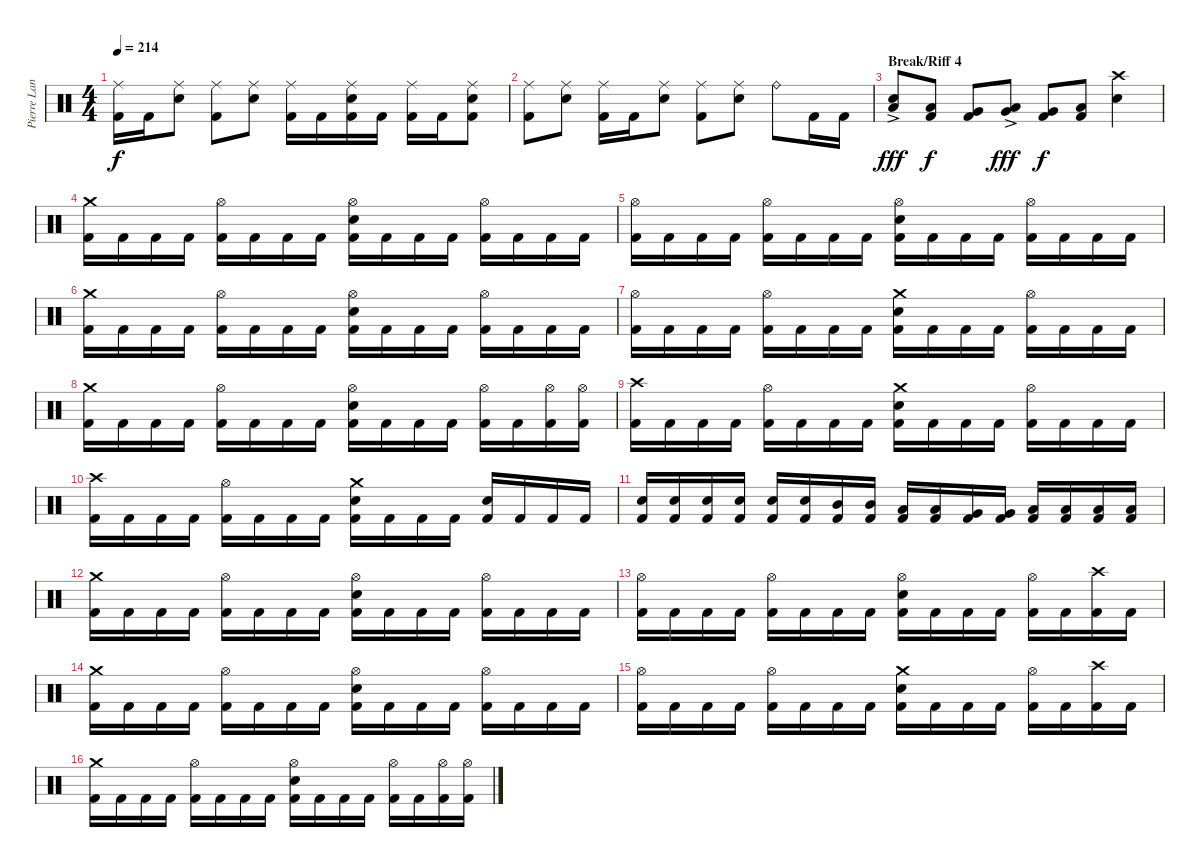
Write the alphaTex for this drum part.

\track ("Pierre Langlois (Drums)" "Pierre Lan") {instrument percussion}
\staff {score}
\articulation defaults
\ts (4 4)
\tempo 214
\clef neutral
\ks c
("Ride (middle)" "Kick (hit) 2").16{dy f} "Kick (hit) 2".16 ("Ride (middle)" "Snare (hit) 2").8 ("Ride (middle)" "Kick (hit) 2").8 ("Ride (middle)" "Snare (hit) 2").8 ("Ride (middle)" "Kick (hit) 2").16 "Kick (hit) 2".16 ("Ride (middle)" "Snare (hit) 2" "Kick (hit) 2").16 "Kick (hit) 2".16 ("Ride (middle)" "Kick (hit) 2").16 "Kick (hit) 2".16 ("Ride (middle)" "Snare (hit) 2" "Kick (hit) 2").8 |
("Ride (middle)" "Kick (hit) 2").8 ("Ride (middle)" "Snare (hit) 2").8 ("Ride (middle)" "Kick (hit) 2").16 "Kick (hit) 2".16 ("Ride (middle)" "Snare (hit) 2").8 ("Ride (middle)" "Kick (hit) 2").8 ("Ride (middle)" "Snare (hit) 2").8 "Ride (bell)".8 "Kick (hit) 2".16 "Kick (hit) 2".16 |
\section ("" "Break/Riff 4")
("Low Floor Tom (hit)"{ac} "Snare (hit) 2"{ac}).8{dy fff} ("Low Tom (hit)" "Kick (hit) 2").8{dy f} ("Very Low Tom (hit)" "Kick (hit) 2").8 ("Low Floor Tom (hit)"{ac} "Very Low Tom (hit)"{ac}).8{dy fff} ("Very Low Tom (hit)" "Kick (hit) 2").8{dy f} ("Low Floor Tom (hit)" "Kick (hit) 2").8 ("Crash high (hit)" "Snare (hit) 2").4 |
("Crash medium (hit)" "Kick (hit) 2").16 "Kick (hit) 2".16 "Kick (hit) 2".16 "Kick (hit) 2".16 ("Hi-Hat (open)" "Kick (hit) 2").16 "Kick (hit) 2".16 "Kick (hit) 2".16 "Kick (hit) 2".16 ("Hi-Hat (open)" "Snare (hit) 2" "Kick (hit) 2").16 "Kick (hit) 2".16 "Kick (hit) 2".16 "Kick (hit) 2".16 ("Hi-Hat (open)" "Kick (hit) 2").16 "Kick (hit) 2".16 "Kick (hit) 2".16 "Kick (hit) 2".16 |
("Hi-Hat (open)" "Kick (hit) 2").16 "Kick (hit) 2".16 "Kick (hit) 2".16 "Kick (hit) 2".16 ("Hi-Hat (open)" "Kick (hit) 2").16 "Kick (hit) 2".16 "Kick (hit) 2".16 "Kick (hit) 2".16 ("Hi-Hat (open)" "Snare (hit) 2" "Kick (hit) 2").16 "Kick (hit) 2".16 "Kick (hit) 2".16 "Kick (hit) 2".16 ("Hi-Hat (open)" "Kick (hit) 2").16 "Kick (hit) 2".16 "Kick (hit) 2".16 "Kick (hit) 2".16 |
("Crash medium (hit)" "Kick (hit) 2").16 "Kick (hit) 2".16 "Kick (hit) 2".16 "Kick (hit) 2".16 ("Hi-Hat (open)" "Kick (hit) 2").16 "Kick (hit) 2".16 "Kick (hit) 2".16 "Kick (hit) 2".16 ("Hi-Hat (open)" "Snare (hit) 2" "Kick (hit) 2").16 "Kick (hit) 2".16 "Kick (hit) 2".16 "Kick (hit) 2".16 ("Hi-Hat (open)" "Kick (hit) 2").16 "Kick (hit) 2".16 "Kick (hit) 2".16 "Kick (hit) 2".16 |
("Hi-Hat (open)" "Kick (hit) 2").16 "Kick (hit) 2".16 "Kick (hit) 2".16 "Kick (hit) 2".16 ("Hi-Hat (open)" "Kick (hit) 2").16 "Kick (hit) 2".16 "Kick (hit) 2".16 "Kick (hit) 2".16 ("Crash medium (hit)" "Snare (hit) 2" "Kick (hit) 2").16 "Kick (hit) 2".16 "Kick (hit) 2".16 "Kick (hit) 2".16 ("Hi-Hat (open)" "Kick (hit) 2").16 "Kick (hit) 2".16 "Kick (hit) 2".16 "Kick (hit) 2".16 |
("Crash medium (hit)" "Kick (hit) 2").16 "Kick (hit) 2".16 "Kick (hit) 2".16 "Kick (hit) 2".16 ("Hi-Hat (open)" "Kick (hit) 2").16 "Kick (hit) 2".16 "Kick (hit) 2".16 "Kick (hit) 2".16 ("Hi-Hat (open)" "Snare (hit) 2" "Kick (hit) 2").16 "Kick (hit) 2".16 "Kick (hit) 2".16 "Kick (hit) 2".16 ("Hi-Hat (open)" "Kick (hit) 2").16 "Kick (hit) 2".16 ("Hi-Hat (open)" "Kick (hit) 2").16 ("Hi-Hat (open)" "Kick (hit) 2").16 |
("Crash high (hit)" "Kick (hit) 2").16 "Kick (hit) 2".16 "Kick (hit) 2".16 "Kick (hit) 2".16 ("Hi-Hat (open)" "Kick (hit) 2").16 "Kick (hit) 2".16 "Kick (hit) 2".16 "Kick (hit) 2".16 ("Crash medium (hit)" "Snare (hit) 2" "Kick (hit) 2").16 "Kick (hit) 2".16 "Kick (hit) 2".16 "Kick (hit) 2".16 ("Hi-Hat (open)" "Kick (hit) 2").16 "Kick (hit) 2".16 "Kick (hit) 2".16 "Kick (hit) 2".16 |
("Crash high (hit)" "Kick (hit) 2").16 "Kick (hit) 2".16 "Kick (hit) 2".16 "Kick (hit) 2".16 ("Hi-Hat (open)" "Kick (hit) 2").16 "Kick (hit) 2".16 "Kick (hit) 2".16 "Kick (hit) 2".16 ("Crash medium (hit)" "Snare (hit) 2" "Kick (hit) 2").16 "Kick (hit) 2".16 "Kick (hit) 2".16 "Kick (hit) 2".16 ("Snare (hit) 2" "Kick (hit) 2").16 "Kick (hit) 2".16 "Kick (hit) 2".16 "Kick (hit) 2".16 |
("Snare (hit) 2" "Kick (hit) 2").16 ("Snare (hit) 2" "Kick (hit) 2").16 ("Snare (hit) 2" "Kick (hit) 2").16 ("Snare (hit) 2" "Kick (hit) 2").16 ("Snare (hit) 2" "Kick (hit) 2").16 ("Snare (hit) 2" "Kick (hit) 2").16 ("Mid Tom (hit)" "Kick (hit) 2").16 ("Mid Tom (hit)" "Kick (hit) 2").16 ("Low Tom (hit)" "Kick (hit) 2").16 ("Low Tom (hit)" "Kick (hit) 2").16 ("Very Low Tom (hit)" "Kick (hit) 2").16 ("Very Low Tom (hit)" "Kick (hit) 2").16 ("Low Floor Tom (hit)" "Kick (hit) 2").16 ("Low Floor Tom (hit)" "Kick (hit) 2").16 ("Low Floor Tom (hit)" "Kick (hit) 2").16 ("Low Floor Tom (hit)" "Kick (hit) 2").16 |
("Crash medium (hit)" "Kick (hit) 2").16 "Kick (hit) 2".16 "Kick (hit) 2".16 "Kick (hit) 2".16 ("Hi-Hat (open)" "Kick (hit) 2").16 "Kick (hit) 2".16 "Kick (hit) 2".16 "Kick (hit) 2".16 ("Hi-Hat (open)" "Snare (hit) 2" "Kick (hit) 2").16 "Kick (hit) 2".16 "Kick (hit) 2".16 "Kick (hit) 2".16 ("Hi-Hat (open)" "Kick (hit) 2").16 "Kick (hit) 2".16 "Kick (hit) 2".16 "Kick (hit) 2".16 |
("Hi-Hat (open)" "Kick (hit) 2").16 "Kick (hit) 2".16 "Kick (hit) 2".16 "Kick (hit) 2".16 ("Hi-Hat (open)" "Kick (hit) 2").16 "Kick (hit) 2".16 "Kick (hit) 2".16 "Kick (hit) 2".16 ("Hi-Hat (open)" "Snare (hit) 2" "Kick (hit) 2").16 "Kick (hit) 2".16 "Kick (hit) 2".16 "Kick (hit) 2".16 ("Hi-Hat (open)" "Kick (hit) 2").16 "Kick (hit) 2".16 ("Crash high (hit)" "Kick (hit) 2").16 "Kick (hit) 2".16 |
("Crash medium (hit)" "Kick (hit) 2").16 "Kick (hit) 2".16 "Kick (hit) 2".16 "Kick (hit) 2".16 ("Hi-Hat (open)" "Kick (hit) 2").16 "Kick (hit) 2".16 "Kick (hit) 2".16 "Kick (hit) 2".16 ("Hi-Hat (open)" "Snare (hit) 2" "Kick (hit) 2").16 "Kick (hit) 2".16 "Kick (hit) 2".16 "Kick (hit) 2".16 ("Hi-Hat (open)" "Kick (hit) 2").16 "Kick (hit) 2".16 "Kick (hit) 2".16 "Kick (hit) 2".16 |
("Hi-Hat (open)" "Kick (hit) 2").16 "Kick (hit) 2".16 "Kick (hit) 2".16 "Kick (hit) 2".16 ("Hi-Hat (open)" "Kick (hit) 2").16 "Kick (hit) 2".16 "Kick (hit) 2".16 "Kick (hit) 2".16 ("Crash medium (hit)" "Snare (hit) 2" "Kick (hit) 2").16 "Kick (hit) 2".16 "Kick (hit) 2".16 "Kick (hit) 2".16 ("Hi-Hat (open)" "Kick (hit) 2").16 "Kick (hit) 2".16 ("Crash high (hit)" "Kick (hit) 2").16 "Kick (hit) 2".16 |
("Crash medium (hit)" "Kick (hit) 2").16 "Kick (hit) 2".16 "Kick (hit) 2".16 "Kick (hit) 2".16 ("Hi-Hat (open)" "Kick (hit) 2").16 "Kick (hit) 2".16 "Kick (hit) 2".16 "Kick (hit) 2".16 ("Hi-Hat (open)" "Snare (hit) 2" "Kick (hit) 2").16 "Kick (hit) 2".16 "Kick (hit) 2".16 "Kick (hit) 2".16 ("Hi-Hat (open)" "Kick (hit) 2").16 "Kick (hit) 2".16 ("Hi-Hat (open)" "Kick (hit) 2").16 ("Hi-Hat (open)" "Kick (hit) 2").16
